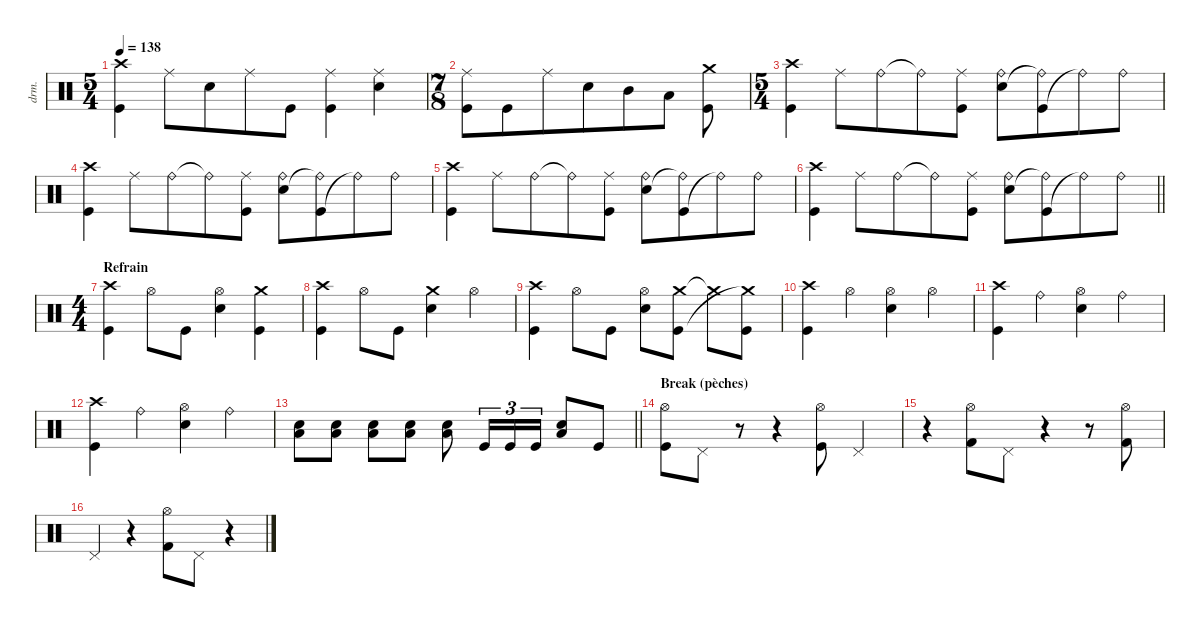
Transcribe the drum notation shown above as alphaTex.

\defaultSystemsLayout 4
\hideDynamics
\bracketExtendMode nobrackets
\track ("Percussions" "drm.") {instrument percussion}
\staff {score}
\articulation defaults
\ts (5 4)
\beaming (8 6 4)
\tempo 138
\clef neutral
\ks aminor
("Crash high (hit)" "Kick (hit)").4{dy f} "Ride (middle)".8 "Snare (hit) 2".8 "Ride (middle)".8 "Kick (hit)".8 ("Ride (middle)" "Kick (hit)").4 ("Ride (middle)" "Snare (hit) 2").4 |
\ts (7 8)
\beaming (8 6 4)
("Ride (middle)" "Kick (hit)").8 "Kick (hit)".8 "Ride (middle)".8 "Snare (hit) 2".8 "Mid Tom (hit)".8 "Low Tom (hit)".8 ("Kick (hit)" "Crash medium (hit)").8 |
\ts (5 4)
\beaming (8 6 4)
("Crash high (hit)" "Kick (hit)").4 "Ride (middle)".8 "Ride (bell)".8 "Ride (bell)"{t}.8 ("Ride (middle)" "Kick (hit)").8 ("Ride (bell)" "Snare (hit) 2").8 ("Kick (hit)" "Ride (bell)"{t}).8 "Ride (bell)"{t}.8 "Ride (bell)".8 |
("Crash high (hit)" "Kick (hit)").4 "Ride (middle)".8 "Ride (bell)".8 "Ride (bell)"{t}.8 ("Ride (middle)" "Kick (hit)").8 ("Ride (bell)" "Snare (hit) 2").8 ("Kick (hit)" "Ride (bell)"{t}).8 "Ride (bell)"{t}.8 "Ride (bell)".8 |
("Crash high (hit)" "Kick (hit)").4 "Ride (middle)".8 "Ride (bell)".8 "Ride (bell)"{t}.8 ("Ride (middle)" "Kick (hit)").8 ("Ride (bell)" "Snare (hit) 2").8 ("Kick (hit)" "Ride (bell)"{t}).8 "Ride (bell)"{t}.8 "Ride (bell)".8 |
\barLineRight lightlight
("Crash high (hit)" "Kick (hit)").4 "Ride (middle)".8 "Ride (bell)".8 "Ride (bell)"{t}.8 ("Ride (middle)" "Kick (hit)").8 ("Ride (bell)" "Snare (hit) 2").8 ("Kick (hit)" "Ride (bell)"{t}).8 "Ride (bell)"{t}.8 "Ride (bell)".8 |
\ts (4 4)
\beaming (8 2 2 2 2)
\section ("" "Refrain")
("Kick (hit)" "Crash high (hit)").4 "Hi-Hat (open)".8 "Kick (hit)".8 ("Hi-Hat (open)" "Snare (hit) 2").4 ("Crash medium (hit)" "Kick (hit)").4 |
("Kick (hit)" "Crash high (hit)").4 "Hi-Hat (open)".8 "Kick (hit)".8 ("Crash medium (hit)" "Snare (hit) 2").4 "Hi-Hat (open)".4 |
("Kick (hit)" "Crash high (hit)").4 "Hi-Hat (open)".8 "Kick (hit)".8 ("Hi-Hat (open)" "Snare (hit) 2").8 ("Crash medium (hit)" "Kick (hit)").8 "Crash medium (hit)"{t}.8 ("Kick (hit)" "Crash medium (hit)"{t}).8 |
("Kick (hit)" "Crash high (hit)").4 "Hi-Hat (open)".4 ("Hi-Hat (open)" "Snare (hit) 2").4 "Hi-Hat (open)".4 |
("Kick (hit)" "Crash high (hit)").4 "Ride (bell)".4 ("Hi-Hat (open)" "Snare (hit) 2").4 "Ride (bell)".4 |
("Kick (hit)" "Crash high (hit)").4 "Ride (bell)".4 ("Hi-Hat (open)" "Snare (hit) 2").4 "Ride (bell)".4 |
\barLineRight lightlight
("Snare (hit) 2" "Low Tom (hit)").8 ("Snare (hit) 2" "Low Tom (hit)").8 ("Snare (hit) 2" "Low Tom (hit)").8 ("Snare (hit) 2" "Low Tom (hit)").8 ("Snare (hit) 2" "Low Tom (hit)").8 "Kick (hit)".16{tu (3 2)} "Kick (hit)".16{tu (3 2)} "Kick (hit)".16{tu (3 2)} ("Snare (hit) 2" "Low Tom (hit)").8 "Kick (hit)".8 |
\section ("" "Break (pèches)")
("Hi-Hat (open)" "Kick (hit)").8 "Pedal Hi-Hat (hit)".8 r.8 r.4 ("Hi-Hat (open)" "Kick (hit)").8 "Pedal Hi-Hat (hit)".4 |
r.4 ("Kick (hit) 2" "Hi-Hat (open)").8 "Pedal Hi-Hat (hit)".8 r.4 r.8 ("Kick (hit) 2" "Hi-Hat (open)").8 |
"Pedal Hi-Hat (hit)".4 r.4 ("Kick (hit) 2" "Hi-Hat (open)").8 "Pedal Hi-Hat (hit)".8 r.4
